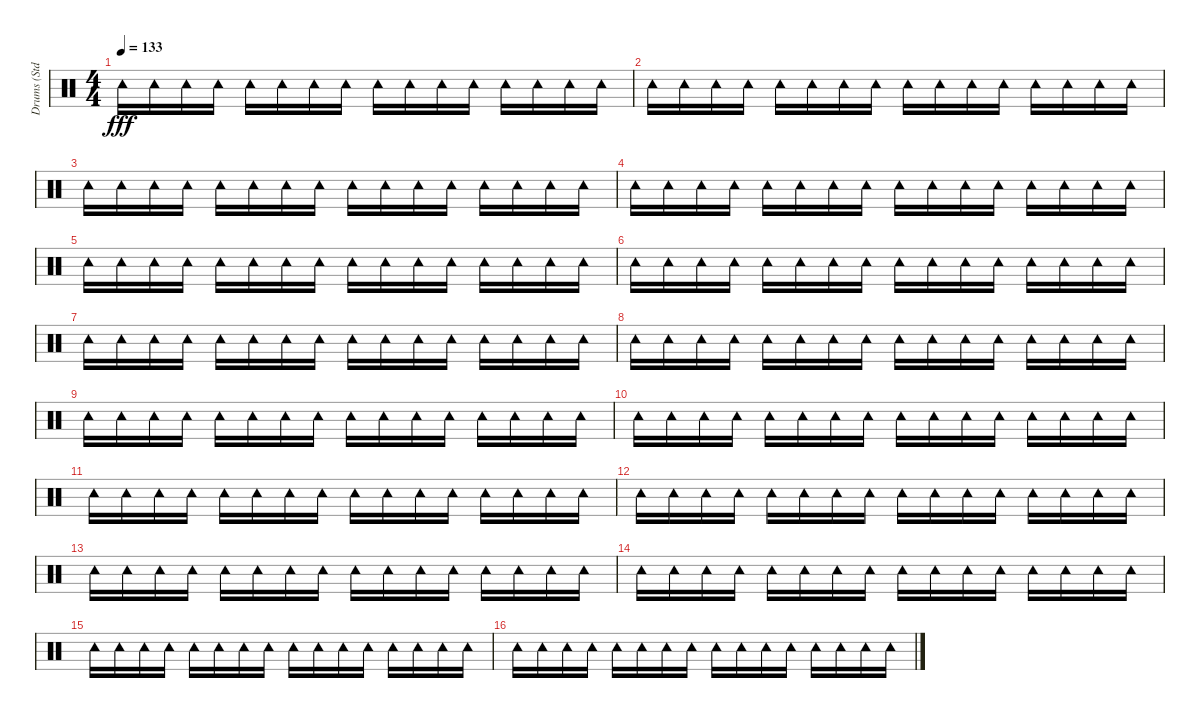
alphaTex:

\track ("Drums (Std.)" "Drums (Std") {instrument percussion}
\staff {score}
\articulation defaults
\ts (4 4)
\tempo 133
\clef neutral
\ks c "Tambourine (hit)".16{dy fff} "Tambourine (hit)".16 "Tambourine (hit)".16 "Tambourine (hit)".16 "Tambourine (hit)".16 "Tambourine (hit)".16 "Tambourine (hit)".16 "Tambourine (hit)".16 "Tambourine (hit)".16 "Tambourine (hit)".16 "Tambourine (hit)".16 "Tambourine (hit)".16 "Tambourine (hit)".16 "Tambourine (hit)".16 "Tambourine (hit)".16 "Tambourine (hit)".16
|
"Tambourine (hit)".16 "Tambourine (hit)".16 "Tambourine (hit)".16 "Tambourine (hit)".16 "Tambourine (hit)".16 "Tambourine (hit)".16 "Tambourine (hit)".16 "Tambourine (hit)".16 "Tambourine (hit)".16 "Tambourine (hit)".16 "Tambourine (hit)".16 "Tambourine (hit)".16 "Tambourine (hit)".16 "Tambourine (hit)".16 "Tambourine (hit)".16 "Tambourine (hit)".16 |
"Tambourine (hit)".16 "Tambourine (hit)".16 "Tambourine (hit)".16 "Tambourine (hit)".16 "Tambourine (hit)".16 "Tambourine (hit)".16 "Tambourine (hit)".16 "Tambourine (hit)".16 "Tambourine (hit)".16 "Tambourine (hit)".16 "Tambourine (hit)".16 "Tambourine (hit)".16 "Tambourine (hit)".16 "Tambourine (hit)".16 "Tambourine (hit)".16 "Tambourine (hit)".16 |
"Tambourine (hit)".16 "Tambourine (hit)".16 "Tambourine (hit)".16 "Tambourine (hit)".16 "Tambourine (hit)".16 "Tambourine (hit)".16 "Tambourine (hit)".16 "Tambourine (hit)".16 "Tambourine (hit)".16 "Tambourine (hit)".16 "Tambourine (hit)".16 "Tambourine (hit)".16 "Tambourine (hit)".16 "Tambourine (hit)".16 "Tambourine (hit)".16 "Tambourine (hit)".16 |
"Tambourine (hit)".16 "Tambourine (hit)".16 "Tambourine (hit)".16 "Tambourine (hit)".16 "Tambourine (hit)".16 "Tambourine (hit)".16 "Tambourine (hit)".16 "Tambourine (hit)".16 "Tambourine (hit)".16 "Tambourine (hit)".16 "Tambourine (hit)".16 "Tambourine (hit)".16 "Tambourine (hit)".16 "Tambourine (hit)".16 "Tambourine (hit)".16 "Tambourine (hit)".16 |
"Tambourine (hit)".16 "Tambourine (hit)".16 "Tambourine (hit)".16 "Tambourine (hit)".16 "Tambourine (hit)".16 "Tambourine (hit)".16 "Tambourine (hit)".16 "Tambourine (hit)".16 "Tambourine (hit)".16 "Tambourine (hit)".16 "Tambourine (hit)".16 "Tambourine (hit)".16 "Tambourine (hit)".16 "Tambourine (hit)".16 "Tambourine (hit)".16 "Tambourine (hit)".16 |
"Tambourine (hit)".16 "Tambourine (hit)".16 "Tambourine (hit)".16 "Tambourine (hit)".16 "Tambourine (hit)".16 "Tambourine (hit)".16 "Tambourine (hit)".16 "Tambourine (hit)".16 "Tambourine (hit)".16 "Tambourine (hit)".16 "Tambourine (hit)".16 "Tambourine (hit)".16 "Tambourine (hit)".16 "Tambourine (hit)".16 "Tambourine (hit)".16 "Tambourine (hit)".16 |
"Tambourine (hit)".16 "Tambourine (hit)".16 "Tambourine (hit)".16 "Tambourine (hit)".16 "Tambourine (hit)".16 "Tambourine (hit)".16 "Tambourine (hit)".16 "Tambourine (hit)".16 "Tambourine (hit)".16 "Tambourine (hit)".16 "Tambourine (hit)".16 "Tambourine (hit)".16 "Tambourine (hit)".16 "Tambourine (hit)".16 "Tambourine (hit)".16 "Tambourine (hit)".16 |
"Tambourine (hit)".16 "Tambourine (hit)".16 "Tambourine (hit)".16 "Tambourine (hit)".16 "Tambourine (hit)".16 "Tambourine (hit)".16 "Tambourine (hit)".16 "Tambourine (hit)".16 "Tambourine (hit)".16 "Tambourine (hit)".16 "Tambourine (hit)".16 "Tambourine (hit)".16 "Tambourine (hit)".16 "Tambourine (hit)".16 "Tambourine (hit)".16 "Tambourine (hit)".16 |
"Tambourine (hit)".16 "Tambourine (hit)".16 "Tambourine (hit)".16 "Tambourine (hit)".16 "Tambourine (hit)".16 "Tambourine (hit)".16 "Tambourine (hit)".16 "Tambourine (hit)".16 "Tambourine (hit)".16 "Tambourine (hit)".16 "Tambourine (hit)".16 "Tambourine (hit)".16 "Tambourine (hit)".16 "Tambourine (hit)".16 "Tambourine (hit)".16 "Tambourine (hit)".16 |
"Tambourine (hit)".16 "Tambourine (hit)".16 "Tambourine (hit)".16 "Tambourine (hit)".16 "Tambourine (hit)".16 "Tambourine (hit)".16 "Tambourine (hit)".16 "Tambourine (hit)".16 "Tambourine (hit)".16 "Tambourine (hit)".16 "Tambourine (hit)".16 "Tambourine (hit)".16 "Tambourine (hit)".16 "Tambourine (hit)".16 "Tambourine (hit)".16 "Tambourine (hit)".16 |
"Tambourine (hit)".16 "Tambourine (hit)".16 "Tambourine (hit)".16 "Tambourine (hit)".16 "Tambourine (hit)".16 "Tambourine (hit)".16 "Tambourine (hit)".16 "Tambourine (hit)".16 "Tambourine (hit)".16 "Tambourine (hit)".16 "Tambourine (hit)".16 "Tambourine (hit)".16 "Tambourine (hit)".16 "Tambourine (hit)".16 "Tambourine (hit)".16 "Tambourine (hit)".16 |
"Tambourine (hit)".16 "Tambourine (hit)".16 "Tambourine (hit)".16 "Tambourine (hit)".16 "Tambourine (hit)".16 "Tambourine (hit)".16 "Tambourine (hit)".16 "Tambourine (hit)".16 "Tambourine (hit)".16 "Tambourine (hit)".16 "Tambourine (hit)".16 "Tambourine (hit)".16 "Tambourine (hit)".16 "Tambourine (hit)".16 "Tambourine (hit)".16 "Tambourine (hit)".16 |
"Tambourine (hit)".16 "Tambourine (hit)".16 "Tambourine (hit)".16 "Tambourine (hit)".16 "Tambourine (hit)".16 "Tambourine (hit)".16 "Tambourine (hit)".16 "Tambourine (hit)".16 "Tambourine (hit)".16 "Tambourine (hit)".16 "Tambourine (hit)".16 "Tambourine (hit)".16 "Tambourine (hit)".16 "Tambourine (hit)".16 "Tambourine (hit)".16 "Tambourine (hit)".16 |
"Tambourine (hit)".16 "Tambourine (hit)".16 "Tambourine (hit)".16 "Tambourine (hit)".16 "Tambourine (hit)".16 "Tambourine (hit)".16 "Tambourine (hit)".16 "Tambourine (hit)".16 "Tambourine (hit)".16 "Tambourine (hit)".16 "Tambourine (hit)".16 "Tambourine (hit)".16 "Tambourine (hit)".16 "Tambourine (hit)".16 "Tambourine (hit)".16 "Tambourine (hit)".16 |
"Tambourine (hit)".16 "Tambourine (hit)".16 "Tambourine (hit)".16 "Tambourine (hit)".16 "Tambourine (hit)".16 "Tambourine (hit)".16 "Tambourine (hit)".16 "Tambourine (hit)".16 "Tambourine (hit)".16 "Tambourine (hit)".16 "Tambourine (hit)".16 "Tambourine (hit)".16 "Tambourine (hit)".16 "Tambourine (hit)".16 "Tambourine (hit)".16 "Tambourine (hit)".16
